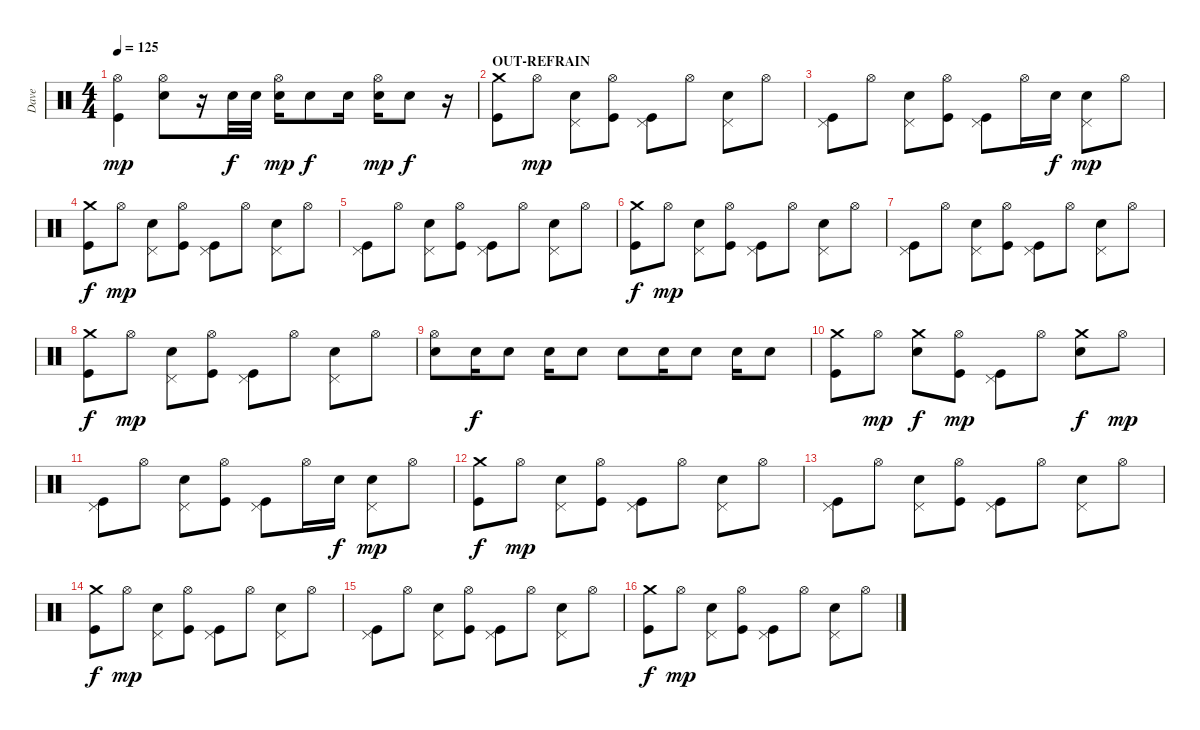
\track ("Dave" "Dave") {instrument percussion}
\staff {score}
\articulation defaults
\ts (4 4)
\tempo 125
\clef neutral
\ks c
("Hi-Hat (open)" "Kick (hit)").4{dy mp} ("Hi-Hat (open)" "Snare (hit) 2").8 r.16 "Snare (hit) 2".32{dy f} "Snare (hit) 2".32 ("Hi-Hat (open)" "Snare (hit) 2").16{dy mp} "Snare (hit) 2".8{dy f} "Snare (hit) 2".16 ("Hi-Hat (open)" "Snare (hit) 2").16{dy mp} "Snare (hit) 2".8{dy f} r.16 |
\section ("" "OUT-REFRAIN")
("Crash medium (hit)" "Kick (hit)").8 "Hi-Hat (open)".8{dy mp} ("Pedal Hi-Hat (hit)" "Snare (hit) 2").8 ("Hi-Hat (open)" "Kick (hit)").8 ("Pedal Hi-Hat (hit)" "Kick (hit)").8 "Hi-Hat (open)".8 ("Pedal Hi-Hat (hit)" "Snare (hit) 2").8 "Hi-Hat (open)".8 |
("Pedal Hi-Hat (hit)" "Kick (hit)").8 "Hi-Hat (open)".8 ("Pedal Hi-Hat (hit)" "Snare (hit) 2").8 ("Hi-Hat (open)" "Kick (hit)").8 ("Pedal Hi-Hat (hit)" "Kick (hit)").8 "Hi-Hat (open)".16 "Snare (hit) 2".16{dy f} ("Pedal Hi-Hat (hit)" "Snare (hit) 2").8{dy mp} "Hi-Hat (open)".8 |
("Crash medium (hit)" "Kick (hit)").8{dy f} "Hi-Hat (open)".8{dy mp} ("Pedal Hi-Hat (hit)" "Snare (hit) 2").8 ("Hi-Hat (open)" "Kick (hit)").8 ("Pedal Hi-Hat (hit)" "Kick (hit)").8 "Hi-Hat (open)".8 ("Pedal Hi-Hat (hit)" "Snare (hit) 2").8 "Hi-Hat (open)".8 |
("Pedal Hi-Hat (hit)" "Kick (hit)").8 "Hi-Hat (open)".8 ("Pedal Hi-Hat (hit)" "Snare (hit) 2").8 ("Hi-Hat (open)" "Kick (hit)").8 ("Pedal Hi-Hat (hit)" "Kick (hit)").8 "Hi-Hat (open)".8 ("Pedal Hi-Hat (hit)" "Snare (hit) 2").8 "Hi-Hat (open)".8 |
("Crash medium (hit)" "Kick (hit)").8{dy f} "Hi-Hat (open)".8{dy mp} ("Pedal Hi-Hat (hit)" "Snare (hit) 2").8 ("Hi-Hat (open)" "Kick (hit)").8 ("Pedal Hi-Hat (hit)" "Kick (hit)").8 "Hi-Hat (open)".8 ("Pedal Hi-Hat (hit)" "Snare (hit) 2").8 "Hi-Hat (open)".8 |
("Pedal Hi-Hat (hit)" "Kick (hit)").8 "Hi-Hat (open)".8 ("Pedal Hi-Hat (hit)" "Snare (hit) 2").8 ("Hi-Hat (open)" "Kick (hit)").8 ("Pedal Hi-Hat (hit)" "Kick (hit)").8 "Hi-Hat (open)".8 ("Pedal Hi-Hat (hit)" "Snare (hit) 2").8 "Hi-Hat (open)".8 |
("Crash medium (hit)" "Kick (hit)").8{dy f} "Hi-Hat (open)".8{dy mp} ("Pedal Hi-Hat (hit)" "Snare (hit) 2").8 ("Hi-Hat (open)" "Kick (hit)").8 ("Pedal Hi-Hat (hit)" "Kick (hit)").8 "Hi-Hat (open)".8 ("Pedal Hi-Hat (hit)" "Snare (hit) 2").8 "Hi-Hat (open)".8 |
("Hi-Hat (open)" "Snare (hit) 2").8 "Snare (hit) 2".16{dy f} "Snare (hit) 2".8 "Snare (hit) 2".16 "Snare (hit) 2".8 "Snare (hit) 2".8 "Snare (hit) 2".16 "Snare (hit) 2".8 "Snare (hit) 2".16 "Snare (hit) 2".8 |
("Crash medium (hit)" "Kick (hit)").8 "Hi-Hat (open)".8{dy mp} ("Crash medium (hit)" "Snare (hit) 2").8{dy f} ("Hi-Hat (open)" "Kick (hit)").8{dy mp} ("Pedal Hi-Hat (hit)" "Kick (hit)").8 "Hi-Hat (open)".8 ("Crash medium (hit)" "Snare (hit) 2").8{dy f} "Hi-Hat (open)".8{dy mp} |
("Pedal Hi-Hat (hit)" "Kick (hit)").8 "Hi-Hat (open)".8 ("Pedal Hi-Hat (hit)" "Snare (hit) 2").8 ("Hi-Hat (open)" "Kick (hit)").8 ("Pedal Hi-Hat (hit)" "Kick (hit)").8 "Hi-Hat (open)".16 "Snare (hit) 2".16{dy f} ("Pedal Hi-Hat (hit)" "Snare (hit) 2").8{dy mp} "Hi-Hat (open)".8 |
("Crash medium (hit)" "Kick (hit)").8{dy f} "Hi-Hat (open)".8{dy mp} ("Pedal Hi-Hat (hit)" "Snare (hit) 2").8 ("Hi-Hat (open)" "Kick (hit)").8 ("Pedal Hi-Hat (hit)" "Kick (hit)").8 "Hi-Hat (open)".8 ("Pedal Hi-Hat (hit)" "Snare (hit) 2").8 "Hi-Hat (open)".8 |
("Pedal Hi-Hat (hit)" "Kick (hit)").8 "Hi-Hat (open)".8 ("Pedal Hi-Hat (hit)" "Snare (hit) 2").8 ("Hi-Hat (open)" "Kick (hit)").8 ("Pedal Hi-Hat (hit)" "Kick (hit)").8 "Hi-Hat (open)".8 ("Pedal Hi-Hat (hit)" "Snare (hit) 2").8 "Hi-Hat (open)".8 |
("Crash medium (hit)" "Kick (hit)").8{dy f} "Hi-Hat (open)".8{dy mp} ("Pedal Hi-Hat (hit)" "Snare (hit) 2").8 ("Hi-Hat (open)" "Kick (hit)").8 ("Pedal Hi-Hat (hit)" "Kick (hit)").8 "Hi-Hat (open)".8 ("Pedal Hi-Hat (hit)" "Snare (hit) 2").8 "Hi-Hat (open)".8 |
("Pedal Hi-Hat (hit)" "Kick (hit)").8 "Hi-Hat (open)".8 ("Pedal Hi-Hat (hit)" "Snare (hit) 2").8 ("Hi-Hat (open)" "Kick (hit)").8 ("Pedal Hi-Hat (hit)" "Kick (hit)").8 "Hi-Hat (open)".8 ("Pedal Hi-Hat (hit)" "Snare (hit) 2").8 "Hi-Hat (open)".8 |
("Crash medium (hit)" "Kick (hit)").8{dy f} "Hi-Hat (open)".8{dy mp} ("Pedal Hi-Hat (hit)" "Snare (hit) 2").8 ("Hi-Hat (open)" "Kick (hit)").8 ("Pedal Hi-Hat (hit)" "Kick (hit)").8 "Hi-Hat (open)".8 ("Pedal Hi-Hat (hit)" "Snare (hit) 2").8 "Hi-Hat (open)".8
